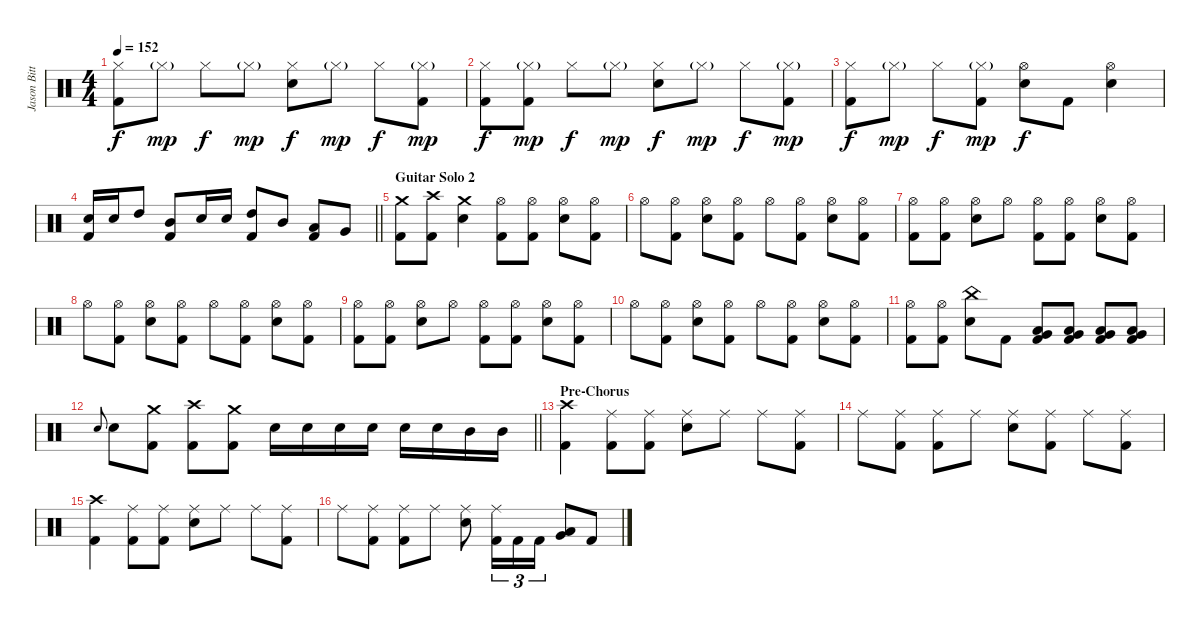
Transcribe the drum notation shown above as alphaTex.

\track ("Jason Bittner" "Jason Bitt") {instrument percussion}
\staff {score}
\articulation defaults
\ts (4 4)
\tempo 152
\clef neutral
\ks c
("Hi-Hat (closed)" "Kick (hit) 2").8{dy f} "Hi-Hat (closed)"{g}.8{dy mp} "Hi-Hat (closed)".8{dy f} "Hi-Hat (closed)"{g}.8{dy mp} ("Hi-Hat (closed)" "Electric Snare (hit)").8{dy f} "Hi-Hat (closed)"{g}.8{dy mp} "Hi-Hat (closed)".8{dy f} ("Hi-Hat (closed)"{g} "Kick (hit) 2").8{dy mp} |
("Hi-Hat (closed)" "Kick (hit) 2").8{dy f} ("Hi-Hat (closed)"{g} "Kick (hit) 2").8{dy mp} "Hi-Hat (closed)".8{dy f} "Hi-Hat (closed)"{g}.8{dy mp} ("Hi-Hat (closed)" "Electric Snare (hit)").8{dy f} "Hi-Hat (closed)"{g}.8{dy mp} "Hi-Hat (closed)".8{dy f} ("Hi-Hat (closed)"{g} "Kick (hit) 2").8{dy mp} |
("Hi-Hat (closed)" "Kick (hit) 2").8{dy f} "Hi-Hat (closed)"{g}.8{dy mp} "Hi-Hat (closed)".8{dy f} ("Hi-Hat (closed)"{g} "Kick (hit) 2").8{dy mp} ("Hi-Hat (open)" "Electric Snare (hit)").8{dy f} "Kick (hit) 2".8 ("Hi-Hat (open)" "Electric Snare (hit)").4 |
\barLineRight lightlight
("Electric Snare (hit)" "Kick (hit) 2").16 "Electric Snare (hit)".16 "High Tom (hit)".8 ("Mid Tom (hit)" "Kick (hit) 2").8 "Electric Snare (hit)".16 "Electric Snare (hit)".16 ("High Tom (hit)" "Kick (hit) 2").8 "Mid Tom (hit)".8 ("Low Tom (hit)" "Kick (hit) 2").8 "Very Low Tom (hit)".8 |
\section ("" "Guitar Solo 2")
("Crash medium (hit)" "Kick (hit) 2").8 ("Crash high (hit)" "Kick (hit) 2").8 ("Crash medium (hit)" "Electric Snare (hit)").4 ("Hi-Hat (open)" "Kick (hit) 2").8 ("Hi-Hat (open)" "Kick (hit) 2").8 ("Hi-Hat (open)" "Electric Snare (hit)").8 ("Hi-Hat (open)" "Kick (hit) 2").8 |
"Hi-Hat (open)".8 ("Hi-Hat (open)" "Kick (hit) 2").8 ("Hi-Hat (open)" "Electric Snare (hit)").8 ("Hi-Hat (open)" "Kick (hit) 2").8 "Hi-Hat (open)".8 ("Hi-Hat (open)" "Kick (hit) 2").8 ("Hi-Hat (open)" "Electric Snare (hit)").8 ("Hi-Hat (open)" "Kick (hit) 2").8 |
("Hi-Hat (open)" "Kick (hit) 2").8 ("Hi-Hat (open)" "Kick (hit) 2").8 ("Hi-Hat (open)" "Electric Snare (hit)").8 "Hi-Hat (open)".8 ("Hi-Hat (open)" "Kick (hit) 2").8 ("Hi-Hat (open)" "Kick (hit) 2").8 ("Hi-Hat (open)" "Electric Snare (hit)").8 ("Hi-Hat (open)" "Kick (hit) 2").8 |
"Hi-Hat (open)".8 ("Hi-Hat (open)" "Kick (hit) 2").8 ("Hi-Hat (open)" "Electric Snare (hit)").8 ("Hi-Hat (open)" "Kick (hit) 2").8 "Hi-Hat (open)".8 ("Hi-Hat (open)" "Kick (hit) 2").8 ("Hi-Hat (open)" "Electric Snare (hit)").8 ("Hi-Hat (open)" "Kick (hit) 2").8 |
("Hi-Hat (open)" "Kick (hit) 2").8 ("Hi-Hat (open)" "Kick (hit) 2").8 ("Hi-Hat (open)" "Electric Snare (hit)").8 "Hi-Hat (open)".8 ("Hi-Hat (open)" "Kick (hit) 2").8 ("Hi-Hat (open)" "Kick (hit) 2").8 ("Hi-Hat (open)" "Electric Snare (hit)").8 ("Hi-Hat (open)" "Kick (hit) 2").8 |
"Hi-Hat (open)".8 ("Hi-Hat (open)" "Kick (hit) 2").8 ("Hi-Hat (open)" "Electric Snare (hit)").8 ("Hi-Hat (open)" "Kick (hit) 2").8 "Hi-Hat (open)".8 ("Hi-Hat (open)" "Kick (hit) 2").8 ("Hi-Hat (open)" "Electric Snare (hit)").8 ("Hi-Hat (open)" "Kick (hit) 2").8 |
("Hi-Hat (open)" "Kick (hit) 2").8 ("Hi-Hat (open)" "Kick (hit) 2").8 ("China (hit)" "Electric Snare (hit)").8 "Kick (hit) 2".8 ("Low Tom (hit)" "Very Low Tom (hit)" "Kick (hit) 2").8 ("Low Tom (hit)" "Very Low Tom (hit)" "Kick (hit) 2").8 ("Low Tom (hit)" "Very Low Tom (hit)" "Kick (hit) 2").8 ("Low Tom (hit)" "Very Low Tom (hit)" "Kick (hit) 2").8 |
\barLineRight lightlight "Electric Snare (hit)".8{gr onbeat} "Electric Snare (hit)".8
("Crash medium (hit)" "Kick (hit) 2").8 ("Crash high (hit)" "Kick (hit) 2").8 ("Crash medium (hit)" "Kick (hit) 2").8 "Electric Snare (hit)".16 "Electric Snare (hit)".16 "Electric Snare (hit)".16 "Electric Snare (hit)".16 "Electric Snare (hit)".16 "Electric Snare (hit)".16 "Mid Tom (hit)".16 "Mid Tom (hit)".16 |
\section ("" "Pre-Chorus")
("Crash high (hit)" "Kick (hit) 2").4 ("Ride (middle)" "Kick (hit) 2").8 ("Ride (middle)" "Kick (hit) 2").8 ("Ride (middle)" "Electric Snare (hit)").8 "Ride (middle)".8 "Ride (middle)".8 ("Ride (middle)" "Kick (hit) 2").8 |
"Ride (middle)".8 ("Ride (middle)" "Kick (hit) 2").8 ("Ride (middle)" "Kick (hit) 2").8 "Ride (middle)".8 ("Ride (middle)" "Electric Snare (hit)").8 ("Ride (middle)" "Kick (hit) 2").8 "Ride (middle)".8 ("Ride (middle)" "Kick (hit) 2").8 |
("Crash high (hit)" "Kick (hit) 2").4 ("Ride (middle)" "Kick (hit) 2").8 ("Ride (middle)" "Kick (hit) 2").8 ("Ride (middle)" "Electric Snare (hit)").8 "Ride (middle)".8 "Ride (middle)".8 ("Ride (middle)" "Kick (hit) 2").8 |
"Ride (middle)".8 ("Ride (middle)" "Kick (hit) 2").8 ("Ride (middle)" "Kick (hit) 2").8 "Ride (middle)".8 ("Ride (middle)" "Electric Snare (hit)").8 ("Ride (middle)" "Kick (hit) 2").16{tu (3 2)} "Kick (hit) 2".16{tu (3 2)} "Kick (hit) 2".16{tu (3 2)} ("Low Tom (hit)" "Very Low Tom (hit)").8 "Kick (hit) 2".8
